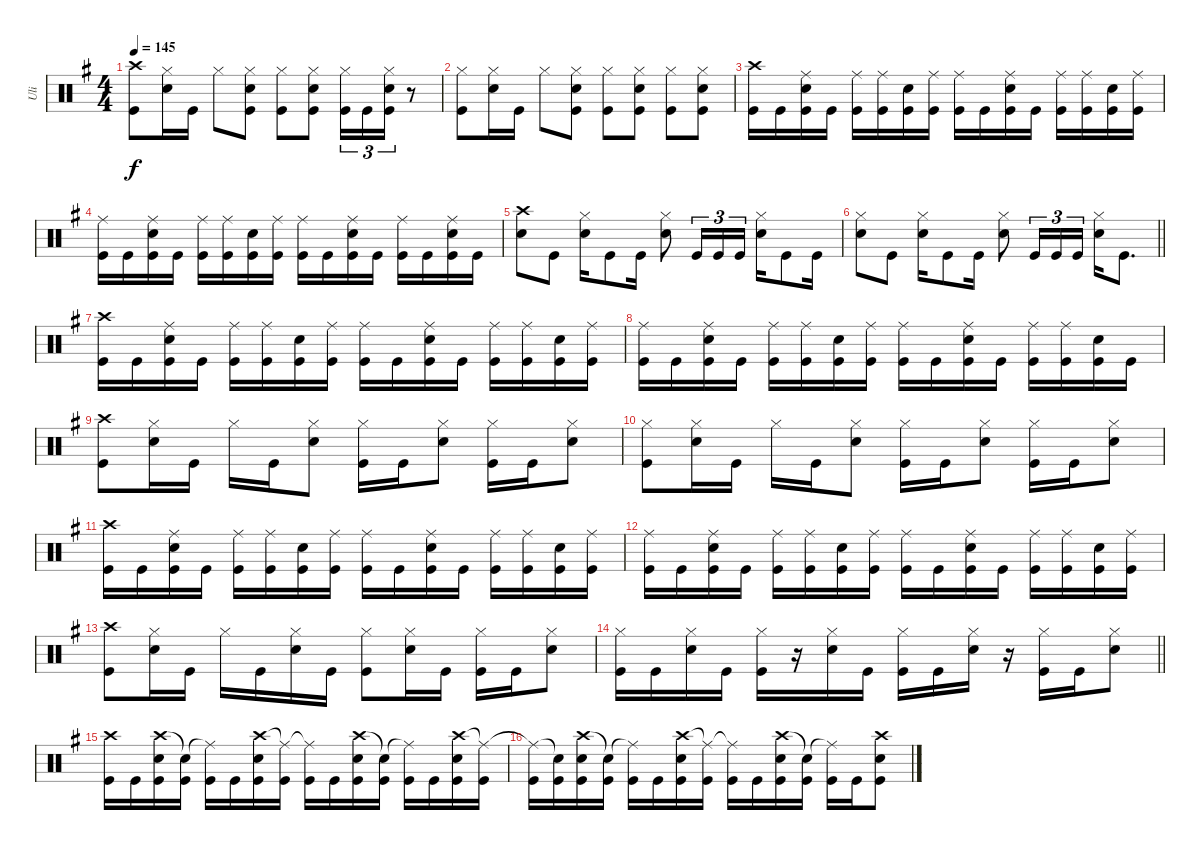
\track ("Uli" "Uli") {instrument percussion}
\staff {score}
\articulation defaults
\ts (4 4)
\tempo 145
\clef neutral
\ks eminor
("Crash high (hit)" "Kick (hit)").8{dy f} ("Hi-Hat (closed)" "Snare (hit) 2").16 "Kick (hit)".16 "Hi-Hat (closed)".8 ("Hi-Hat (closed)" "Snare (hit) 2" "Kick (hit)").8 ("Hi-Hat (closed)" "Kick (hit)").8 ("Hi-Hat (closed)" "Snare (hit) 2" "Kick (hit)").8 ("Hi-Hat (closed)" "Kick (hit)").16{tu (3 2)} "Kick (hit)".16{tu (3 2)} ("Hi-Hat (closed)" "Snare (hit) 2" "Kick (hit)").16{tu (3 2)} r.8 |
("Hi-Hat (closed)" "Kick (hit)").8 ("Hi-Hat (closed)" "Snare (hit) 2").16 "Kick (hit)".16 "Hi-Hat (closed)".8 ("Hi-Hat (closed)" "Snare (hit) 2" "Kick (hit)").8 ("Hi-Hat (closed)" "Kick (hit)").8 ("Hi-Hat (closed)" "Snare (hit) 2" "Kick (hit)").8 ("Hi-Hat (closed)" "Kick (hit)").8 ("Hi-Hat (closed)" "Snare (hit) 2" "Kick (hit)").8 |
("Crash high (hit)" "Kick (hit)").16 "Kick (hit)".16 ("Ride (middle)" "Snare (hit) 2" "Kick (hit)").16 "Kick (hit)".16 ("Ride (middle)" "Kick (hit)").16 ("Ride (middle)" "Kick (hit)").16 ("Snare (hit) 2" "Kick (hit)").16 ("Ride (middle)" "Kick (hit)").16 ("Ride (middle)" "Kick (hit)").16 "Kick (hit)".16 ("Ride (middle)" "Snare (hit) 2" "Kick (hit)").16 "Kick (hit)".16 ("Ride (middle)" "Kick (hit)").16 ("Ride (middle)" "Kick (hit)").16 ("Snare (hit) 2" "Kick (hit)").16 ("Ride (middle)" "Kick (hit)").16 |
("Ride (middle)" "Kick (hit)").16 "Kick (hit)".16 ("Ride (middle)" "Snare (hit) 2" "Kick (hit)").16 "Kick (hit)".16 ("Ride (middle)" "Kick (hit)").16 ("Ride (middle)" "Kick (hit)").16 ("Snare (hit) 2" "Kick (hit)").16 ("Ride (middle)" "Kick (hit)").16 ("Ride (middle)" "Kick (hit)").16 "Kick (hit)".16 ("Ride (middle)" "Snare (hit) 2" "Kick (hit)").16 "Kick (hit)".16 ("Ride (middle)" "Kick (hit)").16 "Kick (hit)".16 ("Ride (middle)" "Snare (hit) 2" "Kick (hit)").16 "Kick (hit)".16 |
("Crash high (hit)" "Snare (hit) 2").8 "Kick (hit)".8 ("Hi-Hat (closed)" "Snare (hit) 2").16 "Kick (hit)".8 "Kick (hit)".16 ("Hi-Hat (closed)" "Snare (hit) 2").8 "Kick (hit)".16{tu (3 2)} "Kick (hit)".16{tu (3 2)} "Kick (hit)".16{tu (3 2)} ("Hi-Hat (closed)" "Snare (hit) 2").16 "Kick (hit)".8 "Kick (hit)".16 |
\barLineRight lightlight
("Hi-Hat (closed)" "Snare (hit) 2").8 "Kick (hit)".8 ("Hi-Hat (closed)" "Snare (hit) 2").16 "Kick (hit)".8 "Kick (hit)".16 ("Hi-Hat (closed)" "Snare (hit) 2").8 "Kick (hit)".16{tu (3 2)} "Kick (hit)".16{tu (3 2)} "Kick (hit)".16{tu (3 2)} ("Hi-Hat (closed)" "Snare (hit) 2").16 "Kick (hit)".8{d} |
("Crash high (hit)" "Kick (hit)").16 "Kick (hit)".16 ("Ride (middle)" "Snare (hit) 2" "Kick (hit)").16 "Kick (hit)".16 ("Ride (middle)" "Kick (hit)").16 ("Ride (middle)" "Kick (hit)").16 ("Snare (hit) 2" "Kick (hit)").16 ("Ride (middle)" "Kick (hit)").16 ("Ride (middle)" "Kick (hit)").16 "Kick (hit)".16 ("Ride (middle)" "Snare (hit) 2" "Kick (hit)").16 "Kick (hit)".16 ("Ride (middle)" "Kick (hit)").16 ("Ride (middle)" "Kick (hit)").16 ("Snare (hit) 2" "Kick (hit)").16 ("Ride (middle)" "Kick (hit)").16 |
("Ride (middle)" "Kick (hit)").16 "Kick (hit)".16 ("Ride (middle)" "Snare (hit) 2" "Kick (hit)").16 "Kick (hit)".16 ("Ride (middle)" "Kick (hit)").16 ("Ride (middle)" "Kick (hit)").16 ("Snare (hit) 2" "Kick (hit)").16 ("Ride (middle)" "Kick (hit)").16 ("Ride (middle)" "Kick (hit)").16 "Kick (hit)".16 ("Ride (middle)" "Snare (hit) 2" "Kick (hit)").16 "Kick (hit)".16 ("Ride (middle)" "Kick (hit)").16 ("Ride (middle)" "Kick (hit)").16 ("Snare (hit) 2" "Kick (hit)").16 "Kick (hit)".16 |
("Crash high (hit)" "Kick (hit)").8 ("Hi-Hat (closed)" "Snare (hit) 2").16 "Kick (hit)".16 "Hi-Hat (closed)".16 "Kick (hit)".16 ("Hi-Hat (closed)" "Snare (hit) 2").8 ("Hi-Hat (closed)" "Kick (hit)").16 "Kick (hit)".16 ("Hi-Hat (closed)" "Snare (hit) 2").8 ("Hi-Hat (closed)" "Kick (hit)").16 "Kick (hit)".16 ("Hi-Hat (closed)" "Snare (hit) 2").8 |
("Hi-Hat (closed)" "Kick (hit)").8 ("Hi-Hat (closed)" "Snare (hit) 2").16 "Kick (hit)".16 "Hi-Hat (closed)".16 "Kick (hit)".16 ("Hi-Hat (closed)" "Snare (hit) 2").8 ("Hi-Hat (closed)" "Kick (hit)").16 "Kick (hit)".16 ("Hi-Hat (closed)" "Snare (hit) 2").8 ("Hi-Hat (closed)" "Kick (hit)").16 "Kick (hit)".16 ("Hi-Hat (closed)" "Snare (hit) 2").8 |
("Crash high (hit)" "Kick (hit)").16 "Kick (hit)".16 ("Ride (middle)" "Snare (hit) 2" "Kick (hit)").16 "Kick (hit)".16 ("Ride (middle)" "Kick (hit)").16 ("Ride (middle)" "Kick (hit)").16 ("Snare (hit) 2" "Kick (hit)").16 ("Ride (middle)" "Kick (hit)").16 ("Ride (middle)" "Kick (hit)").16 "Kick (hit)".16 ("Ride (middle)" "Snare (hit) 2" "Kick (hit)").16 "Kick (hit)".16 ("Ride (middle)" "Kick (hit)").16 ("Ride (middle)" "Kick (hit)").16 ("Snare (hit) 2" "Kick (hit)").16 ("Ride (middle)" "Kick (hit)").16 |
("Ride (middle)" "Kick (hit)").16 "Kick (hit)".16 ("Ride (middle)" "Snare (hit) 2" "Kick (hit)").16 "Kick (hit)".16 ("Ride (middle)" "Kick (hit)").16 ("Ride (middle)" "Kick (hit)").16 ("Snare (hit) 2" "Kick (hit)").16 ("Ride (middle)" "Kick (hit)").16 ("Ride (middle)" "Kick (hit)").16 "Kick (hit)".16 ("Ride (middle)" "Snare (hit) 2" "Kick (hit)").16 "Kick (hit)".16 ("Ride (middle)" "Kick (hit)").16 ("Ride (middle)" "Kick (hit)").16 ("Snare (hit) 2" "Kick (hit)").16 ("Ride (middle)" "Kick (hit)").16 |
("Crash high (hit)" "Kick (hit)").8 ("Hi-Hat (closed)" "Snare (hit) 2").16 "Kick (hit)".16 "Hi-Hat (closed)".16 "Kick (hit)".16 ("Hi-Hat (closed)" "Snare (hit) 2").16 "Kick (hit)".16 ("Hi-Hat (closed)" "Kick (hit)").8 ("Hi-Hat (closed)" "Snare (hit) 2").16 "Kick (hit)".16 ("Hi-Hat (closed)" "Kick (hit)").16 "Kick (hit)".16 ("Hi-Hat (closed)" "Snare (hit) 2").8 |
\barLineRight lightlight
("Hi-Hat (closed)" "Kick (hit)").16 "Kick (hit)".16 ("Hi-Hat (closed)" "Snare (hit) 2").16 "Kick (hit)".16 ("Hi-Hat (closed)" "Kick (hit)").16 r.16 ("Hi-Hat (closed)" "Snare (hit) 2").16 "Kick (hit)".16 ("Hi-Hat (closed)" "Kick (hit)").16 "Kick (hit)".16 ("Hi-Hat (closed)" "Snare (hit) 2").16 r.16 ("Hi-Hat (closed)" "Kick (hit)").16 "Kick (hit)".16 ("Hi-Hat (closed)" "Snare (hit) 2").8 |
("Crash high (hit)" "Kick (hit)").16 "Kick (hit)".16 ("Crash high (hit)" "Snare (hit) 2" "Kick (hit)").16 ("Snare (hit)"{t} "Kick (hit)").16 ("Ride (middle)"{t} "Kick (hit)").16 "Kick (hit)".16 ("Crash high (hit)" "Snare (hit) 2" "Kick (hit)").16 ("Ride (middle)"{t} "Kick (hit)").16 ("Ride (middle)"{t} "Kick (hit)").16 "Kick (hit)".16 ("Crash high (hit)" "Snare (hit) 2" "Kick (hit)").16 ("Snare (hit)"{t} "Kick (hit)").16 ("Ride (middle)"{t} "Kick (hit)").16 "Kick (hit)".16 ("Crash high (hit)" "Snare (hit) 2" "Kick (hit)").16 ("Ride (middle)"{t} "Kick (hit)").16 |
("Ride (middle)"{t} "Kick (hit)").16 ("Snare (hit)"{t} "Kick (hit)").16 ("Crash high (hit)" "Snare (hit) 2" "Kick (hit)").16 ("Snare (hit)"{t} "Kick (hit)").16 ("Ride (middle)"{t} "Kick (hit)").16 "Kick (hit)".16 ("Crash high (hit)" "Snare (hit) 2" "Kick (hit)").16 ("Ride (middle)"{t} "Kick (hit)").16 ("Ride (middle)"{t} "Kick (hit)").16 "Kick (hit)".16 ("Crash high (hit)" "Snare (hit) 2" "Kick (hit)").16 ("Snare (hit)"{t} "Kick (hit)").16 ("Ride (middle)"{t} "Kick (hit)").16 "Kick (hit)".16 ("Crash high (hit)" "Snare (hit) 2" "Kick (hit)").8
